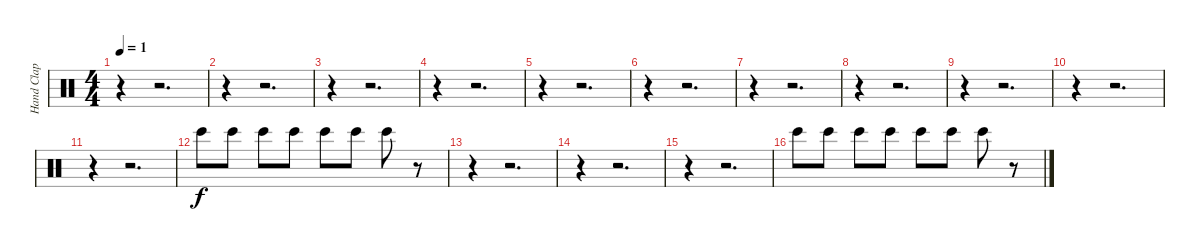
\track ("Hand Clap" "Hand Clap") {instrument percussion}
\staff {score}
\articulation defaults
\ts (4 4)
\tempo 1
\clef neutral
\ks c
r.4{dy f} r.2{d} |
r.4 r.2{d} |
r.4 r.2{d} |
r.4 r.2{d} |
r.4 r.2{d} |
r.4 r.2{d} |
r.4 r.2{d} |
r.4 r.2{d} |
r.4 r.2{d} |
r.4 r.2{d} |
r.4 r.2{d} |
"Bongo High (hit)".8 "Bongo High (hit)".8 "Bongo High (hit)".8 "Bongo High (hit)".8 "Bongo High (hit)".8 "Bongo High (hit)".8 "Bongo High (hit)".8 r.8 |
r.4 r.2{d} |
r.4 r.2{d} |
r.4 r.2{d} |
"Bongo High (hit)".8 "Bongo High (hit)".8 "Bongo High (hit)".8 "Bongo High (hit)".8 "Bongo High (hit)".8 "Bongo High (hit)".8 "Bongo High (hit)".8 r.8
